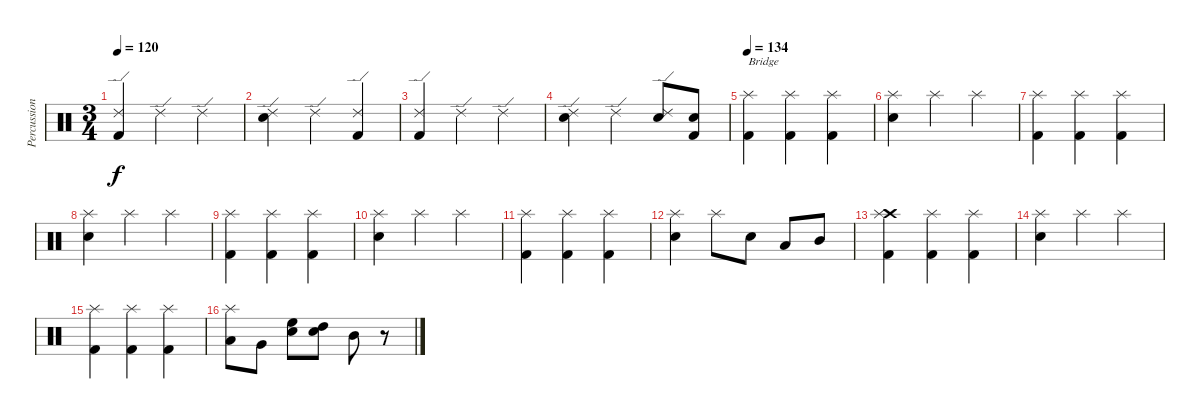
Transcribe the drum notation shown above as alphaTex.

\track ("Percussion" "Percussion") {instrument percussion}
\staff {score}
\articulation defaults
\ts (3 4)
\tempo 120
\clef neutral
\ks c
("Kick (hit) 2" "Ride (edge) 2").4{dy f} "Ride (edge) 2".4 "Ride (edge) 2".4 |
("Snare (hit) 2" "Ride (edge) 2").4 "Ride (edge) 2".4 ("Kick (hit) 2" "Ride (edge) 2").4 |
("Kick (hit) 2" "Ride (edge) 2").4 "Ride (edge) 2".4 "Ride (edge) 2".4 |
("Snare (hit) 2" "Ride (edge) 2").4 "Ride (edge) 2".4 ("Snare (hit) 2" "Ride (edge) 2").8 ("Kick (hit) 2" "Snare (hit) 2").8 |
\tempo 134
("Kick (hit) 2" "Splash (hit)").4{txt "Bridge"} ("Kick (hit) 2" "Splash (hit)").4 ("Kick (hit) 2" "Splash (hit)").4 |
("Snare (hit) 2" "Splash (hit)").4 "Splash (hit)".4 "Splash (hit)".4 |
("Kick (hit) 2" "Splash (hit)").4 ("Kick (hit) 2" "Splash (hit)").4 ("Kick (hit) 2" "Splash (hit)").4 |
("Snare (hit) 2" "Splash (hit)").4 "Splash (hit)".4 "Splash (hit)".4 |
("Kick (hit) 2" "Splash (hit)").4 ("Kick (hit) 2" "Splash (hit)").4 ("Kick (hit) 2" "Splash (hit)").4 |
("Snare (hit) 2" "Splash (hit)").4 "Splash (hit)".4 "Splash (hit)".4 |
("Kick (hit) 2" "Splash (hit)").4 ("Kick (hit) 2" "Splash (hit)").4 ("Kick (hit) 2" "Splash (hit)").4 |
("Snare (hit) 2" "Splash (hit)").4 "Splash (hit)".8 "Snare (hit) 2".8 "Low Tom (hit)".8 "Mid Tom (hit)".8 |
("Crash high (hit)" "Kick (hit) 2" "Splash (hit)").4 ("Kick (hit) 2" "Splash (hit)").4 ("Kick (hit) 2" "Splash (hit)").4 |
("Snare (hit) 2" "Splash (hit)").4 "Splash (hit)".4 "Splash (hit)".4 |
("Kick (hit) 2" "Splash (hit)").4 ("Kick (hit) 2" "Splash (hit)").4 ("Kick (hit) 2" "Splash (hit)").4 |
("Low Tom (hit)" "Splash (hit)").8 "Very Low Tom (hit)".8 ("High Floor Tom (hit)" "Electric Snare (hit)").8 ("High Tom (hit)" "Electric Snare (hit)").8 "Mid Tom (hit)".8 r.8
